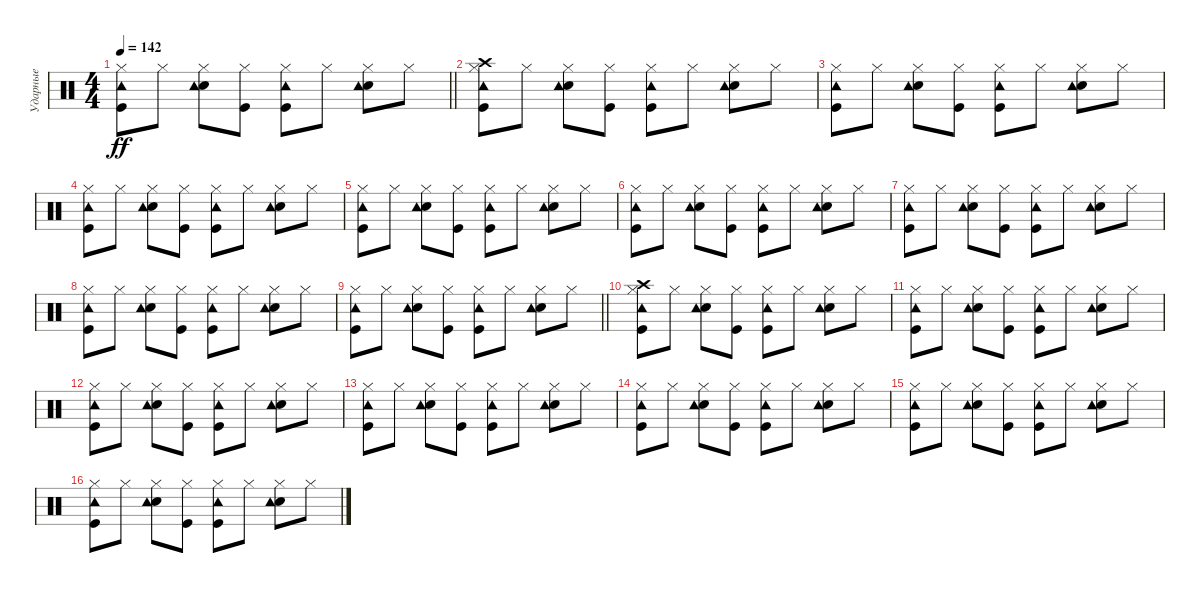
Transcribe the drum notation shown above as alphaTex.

\track ("Ударные" "Ударные") {instrument percussion}
\staff {score}
\articulation defaults
\ts (4 4)
\tempo 142
\clef neutral
\barLineRight lightlight
\ks c
("Hi-Hat (closed)" "Kick (hit)" "Tambourine (hit)").8{dy ff} "Hi-Hat (closed)".8 ("Hi-Hat (closed)" "Electric Snare (hit)" "Tambourine (hit)").8 ("Hi-Hat (closed)" "Kick (hit)").8 ("Hi-Hat (closed)" "Tambourine (hit)" "Kick (hit)").8 "Hi-Hat (closed)".8 ("Hi-Hat (closed)" "Electric Snare (hit)" "Tambourine (hit)").8 "Hi-Hat (closed)".8 |
("Crash high (hit)" "Hi-Hat (closed)" "Kick (hit)" "Tambourine (hit)").8 "Hi-Hat (closed)".8 ("Hi-Hat (closed)" "Electric Snare (hit)" "Tambourine (hit)").8 ("Hi-Hat (closed)" "Kick (hit)").8 ("Hi-Hat (closed)" "Tambourine (hit)" "Kick (hit)").8 "Hi-Hat (closed)".8 ("Hi-Hat (closed)" "Electric Snare (hit)" "Tambourine (hit)").8 "Hi-Hat (closed)".8 |
("Hi-Hat (closed)" "Kick (hit)" "Tambourine (hit)").8 "Hi-Hat (closed)".8 ("Hi-Hat (closed)" "Electric Snare (hit)" "Tambourine (hit)").8 ("Hi-Hat (closed)" "Kick (hit)").8 ("Hi-Hat (closed)" "Tambourine (hit)" "Kick (hit)").8 "Hi-Hat (closed)".8 ("Hi-Hat (closed)" "Electric Snare (hit)" "Tambourine (hit)").8 "Hi-Hat (closed)".8 |
("Hi-Hat (closed)" "Kick (hit)" "Tambourine (hit)").8 "Hi-Hat (closed)".8 ("Hi-Hat (closed)" "Electric Snare (hit)" "Tambourine (hit)").8 ("Hi-Hat (closed)" "Kick (hit)").8 ("Hi-Hat (closed)" "Tambourine (hit)" "Kick (hit)").8 "Hi-Hat (closed)".8 ("Hi-Hat (closed)" "Electric Snare (hit)" "Tambourine (hit)").8 "Hi-Hat (closed)".8 |
("Hi-Hat (closed)" "Kick (hit)" "Tambourine (hit)").8 "Hi-Hat (closed)".8 ("Hi-Hat (closed)" "Electric Snare (hit)" "Tambourine (hit)").8 ("Hi-Hat (closed)" "Kick (hit)").8 ("Hi-Hat (closed)" "Tambourine (hit)" "Kick (hit)").8 "Hi-Hat (closed)".8 ("Hi-Hat (closed)" "Electric Snare (hit)" "Tambourine (hit)").8 "Hi-Hat (closed)".8 |
("Hi-Hat (closed)" "Kick (hit)" "Tambourine (hit)").8 "Hi-Hat (closed)".8 ("Hi-Hat (closed)" "Electric Snare (hit)" "Tambourine (hit)").8 ("Hi-Hat (closed)" "Kick (hit)").8 ("Hi-Hat (closed)" "Tambourine (hit)" "Kick (hit)").8 "Hi-Hat (closed)".8 ("Hi-Hat (closed)" "Electric Snare (hit)" "Tambourine (hit)").8 "Hi-Hat (closed)".8 |
("Hi-Hat (closed)" "Kick (hit)" "Tambourine (hit)").8 "Hi-Hat (closed)".8 ("Hi-Hat (closed)" "Electric Snare (hit)" "Tambourine (hit)").8 ("Hi-Hat (closed)" "Kick (hit)").8 ("Hi-Hat (closed)" "Tambourine (hit)" "Kick (hit)").8 "Hi-Hat (closed)".8 ("Hi-Hat (closed)" "Electric Snare (hit)" "Tambourine (hit)").8 "Hi-Hat (closed)".8 |
("Hi-Hat (closed)" "Kick (hit)" "Tambourine (hit)").8 "Hi-Hat (closed)".8 ("Hi-Hat (closed)" "Electric Snare (hit)" "Tambourine (hit)").8 ("Hi-Hat (closed)" "Kick (hit)").8 ("Hi-Hat (closed)" "Tambourine (hit)" "Kick (hit)").8 "Hi-Hat (closed)".8 ("Hi-Hat (closed)" "Electric Snare (hit)" "Tambourine (hit)").8 "Hi-Hat (closed)".8 |
\barLineRight lightlight
("Hi-Hat (closed)" "Kick (hit)" "Tambourine (hit)").8 "Hi-Hat (closed)".8 ("Hi-Hat (closed)" "Electric Snare (hit)" "Tambourine (hit)").8 ("Hi-Hat (closed)" "Kick (hit)").8 ("Hi-Hat (closed)" "Tambourine (hit)" "Kick (hit)").8 "Hi-Hat (closed)".8 ("Hi-Hat (closed)" "Electric Snare (hit)" "Tambourine (hit)").8 "Hi-Hat (closed)".8 |
\section ("" "")
("Crash high (hit)" "Hi-Hat (closed)" "Kick (hit)" "Tambourine (hit)").8 "Hi-Hat (closed)".8 ("Hi-Hat (closed)" "Electric Snare (hit)" "Tambourine (hit)").8 ("Hi-Hat (closed)" "Kick (hit)").8 ("Hi-Hat (closed)" "Tambourine (hit)" "Kick (hit)").8 "Hi-Hat (closed)".8 ("Hi-Hat (closed)" "Electric Snare (hit)" "Tambourine (hit)").8 "Hi-Hat (closed)".8 |
("Hi-Hat (closed)" "Kick (hit)" "Tambourine (hit)").8 "Hi-Hat (closed)".8 ("Hi-Hat (closed)" "Electric Snare (hit)" "Tambourine (hit)").8 ("Hi-Hat (closed)" "Kick (hit)").8 ("Hi-Hat (closed)" "Tambourine (hit)" "Kick (hit)").8 "Hi-Hat (closed)".8 ("Hi-Hat (closed)" "Electric Snare (hit)" "Tambourine (hit)").8 "Hi-Hat (closed)".8 |
("Hi-Hat (closed)" "Kick (hit)" "Tambourine (hit)").8 "Hi-Hat (closed)".8 ("Hi-Hat (closed)" "Electric Snare (hit)" "Tambourine (hit)").8 ("Hi-Hat (closed)" "Kick (hit)").8 ("Hi-Hat (closed)" "Tambourine (hit)" "Kick (hit)").8 "Hi-Hat (closed)".8 ("Hi-Hat (closed)" "Electric Snare (hit)" "Tambourine (hit)").8 "Hi-Hat (closed)".8 |
("Hi-Hat (closed)" "Kick (hit)" "Tambourine (hit)").8 "Hi-Hat (closed)".8 ("Hi-Hat (closed)" "Electric Snare (hit)" "Tambourine (hit)").8 ("Hi-Hat (closed)" "Kick (hit)").8 ("Hi-Hat (closed)" "Tambourine (hit)" "Kick (hit)").8 "Hi-Hat (closed)".8 ("Hi-Hat (closed)" "Electric Snare (hit)" "Tambourine (hit)").8 "Hi-Hat (closed)".8 |
("Hi-Hat (closed)" "Kick (hit)" "Tambourine (hit)").8 "Hi-Hat (closed)".8 ("Hi-Hat (closed)" "Electric Snare (hit)" "Tambourine (hit)").8 ("Hi-Hat (closed)" "Kick (hit)").8 ("Hi-Hat (closed)" "Tambourine (hit)" "Kick (hit)").8 "Hi-Hat (closed)".8 ("Hi-Hat (closed)" "Electric Snare (hit)" "Tambourine (hit)").8 "Hi-Hat (closed)".8 |
("Hi-Hat (closed)" "Kick (hit)" "Tambourine (hit)").8 "Hi-Hat (closed)".8 ("Hi-Hat (closed)" "Electric Snare (hit)" "Tambourine (hit)").8 ("Hi-Hat (closed)" "Kick (hit)").8 ("Hi-Hat (closed)" "Tambourine (hit)" "Kick (hit)").8 "Hi-Hat (closed)".8 ("Hi-Hat (closed)" "Electric Snare (hit)" "Tambourine (hit)").8 "Hi-Hat (closed)".8 |
("Hi-Hat (closed)" "Kick (hit)" "Tambourine (hit)").8 "Hi-Hat (closed)".8 ("Hi-Hat (closed)" "Electric Snare (hit)" "Tambourine (hit)").8 ("Hi-Hat (closed)" "Kick (hit)").8 ("Hi-Hat (closed)" "Tambourine (hit)" "Kick (hit)").8 "Hi-Hat (closed)".8 ("Hi-Hat (closed)" "Electric Snare (hit)" "Tambourine (hit)").8 "Hi-Hat (closed)".8
